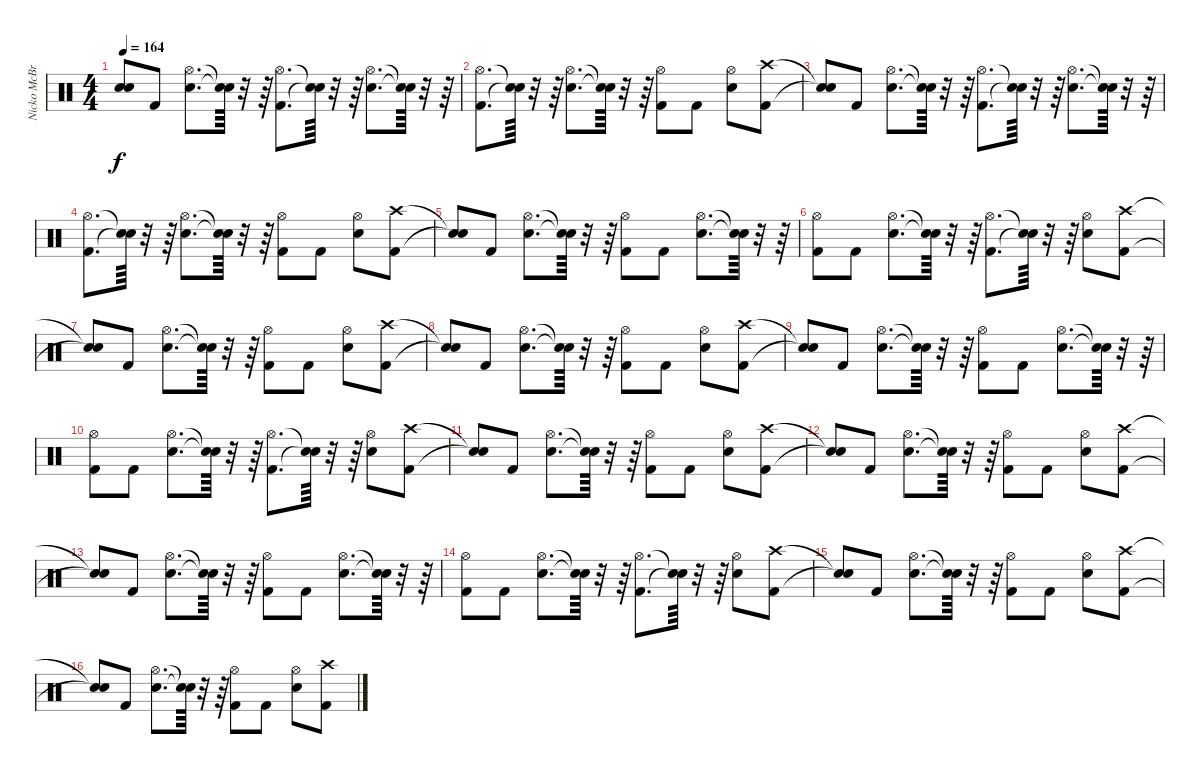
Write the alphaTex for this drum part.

\track ("Nicko McBrian (Drums)" "Nicko McBr") {instrument percussion}
\staff {score}
\articulation defaults
\ts (4 4)
\tempo 164
\clef neutral
\ks c
("Snare (hit)"{t} "Snare (hit)"{t}).8{dy f} "Kick (hit) 2".8 ("Snare (hit) 2" "Hi-Hat (open)").8{d} ("Snare (hit)"{t} "Snare (hit)"{t}).64 r.32 r.64 ("Kick (hit) 2" "Hi-Hat (open)").8{d} ("Snare (hit)"{t} "Snare (hit)"{t}).64 r.32 r.64 ("Snare (hit) 2" "Hi-Hat (open)").8{d} ("Snare (hit)"{t} "Snare (hit)"{t}).64 r.32 r.64 |
("Kick (hit) 2" "Hi-Hat (open)").8{d} ("Snare (hit)"{t} "Snare (hit)"{t}).64 r.32 r.64 ("Snare (hit) 2" "Hi-Hat (open)").8{d} ("Snare (hit)"{t} "Snare (hit)"{t}).64 r.32 r.64 ("Kick (hit) 2" "Hi-Hat (open)").8 "Kick (hit) 2".8 ("Snare (hit) 2" "Hi-Hat (open)").8 ("Kick (hit) 2" "Crash high (hit)").8 |
("Snare (hit)"{t} "Snare (hit)"{t}).8 "Kick (hit) 2".8 ("Snare (hit) 2" "Hi-Hat (open)").8{d} ("Snare (hit)"{t} "Snare (hit)"{t}).64 r.32 r.64 ("Kick (hit) 2" "Hi-Hat (open)").8{d} ("Snare (hit)"{t} "Snare (hit)"{t}).64 r.32 r.64 ("Snare (hit) 2" "Hi-Hat (open)").8{d} ("Snare (hit)"{t} "Snare (hit)"{t}).64 r.32 r.64 |
("Kick (hit) 2" "Hi-Hat (open)").8{d} ("Snare (hit)"{t} "Snare (hit)"{t}).64 r.32 r.64 ("Snare (hit) 2" "Hi-Hat (open)").8{d} ("Snare (hit)"{t} "Snare (hit)"{t}).64 r.32 r.64 ("Kick (hit) 2" "Hi-Hat (open)").8 "Kick (hit) 2".8 ("Snare (hit) 2" "Hi-Hat (open)").8 ("Kick (hit) 2" "Crash high (hit)").8 |
("Snare (hit)"{t} "Snare (hit)"{t}).8 "Kick (hit) 2".8 ("Snare (hit) 2" "Hi-Hat (open)").8{d} ("Snare (hit)"{t} "Snare (hit)"{t}).64 r.32 r.64 ("Kick (hit) 2" "Hi-Hat (open)").8 "Kick (hit) 2".8 ("Snare (hit) 2" "Hi-Hat (open)").8{d} ("Snare (hit)"{t} "Snare (hit)"{t}).64 r.32 r.64 |
("Kick (hit) 2" "Hi-Hat (open)").8 "Kick (hit) 2".8 ("Snare (hit) 2" "Hi-Hat (open)").8{d} ("Snare (hit)"{t} "Snare (hit)"{t}).64 r.32 r.64 ("Kick (hit) 2" "Hi-Hat (open)").8{d} ("Snare (hit)"{t} "Snare (hit)"{t}).64 r.32 r.64 ("Snare (hit) 2" "Hi-Hat (open)").8 ("Kick (hit) 2" "Crash high (hit)").8 |
("Snare (hit)"{t} "Snare (hit)"{t}).8 "Kick (hit) 2".8 ("Snare (hit) 2" "Hi-Hat (open)").8{d} ("Snare (hit)"{t} "Snare (hit)"{t}).64 r.32 r.64 ("Kick (hit) 2" "Hi-Hat (open)").8 "Kick (hit) 2".8 ("Snare (hit) 2" "Hi-Hat (open)").8 ("Kick (hit) 2" "Crash high (hit)").8 |
("Snare (hit)"{t} "Snare (hit)"{t}).8 "Kick (hit) 2".8 ("Snare (hit) 2" "Hi-Hat (open)").8{d} ("Snare (hit)"{t} "Snare (hit)"{t}).64 r.32 r.64 ("Kick (hit) 2" "Hi-Hat (open)").8 "Kick (hit) 2".8 ("Snare (hit) 2" "Hi-Hat (open)").8 ("Kick (hit) 2" "Crash high (hit)").8 |
("Snare (hit)"{t} "Snare (hit)"{t}).8 "Kick (hit) 2".8 ("Snare (hit) 2" "Hi-Hat (open)").8{d} ("Snare (hit)"{t} "Snare (hit)"{t}).64 r.32 r.64 ("Kick (hit) 2" "Hi-Hat (open)").8 "Kick (hit) 2".8 ("Snare (hit) 2" "Hi-Hat (open)").8{d} ("Snare (hit)"{t} "Snare (hit)"{t}).64 r.32 r.64 |
("Kick (hit) 2" "Hi-Hat (open)").8 "Kick (hit) 2".8 ("Snare (hit) 2" "Hi-Hat (open)").8{d} ("Snare (hit)"{t} "Snare (hit)"{t}).64 r.32 r.64 ("Kick (hit) 2" "Hi-Hat (open)").8{d} ("Snare (hit)"{t} "Snare (hit)"{t}).64 r.32 r.64 ("Snare (hit) 2" "Hi-Hat (open)").8 ("Kick (hit) 2" "Crash high (hit)").8 |
("Snare (hit)"{t} "Snare (hit)"{t}).8 "Kick (hit) 2".8 ("Snare (hit) 2" "Hi-Hat (open)").8{d} ("Snare (hit)"{t} "Snare (hit)"{t}).64 r.32 r.64 ("Kick (hit) 2" "Hi-Hat (open)").8 "Kick (hit) 2".8 ("Snare (hit) 2" "Hi-Hat (open)").8 ("Kick (hit) 2" "Crash high (hit)").8 |
("Snare (hit)"{t} "Snare (hit)"{t}).8 "Kick (hit) 2".8 ("Snare (hit) 2" "Hi-Hat (open)").8{d} ("Snare (hit)"{t} "Snare (hit)"{t}).64 r.32 r.64 ("Kick (hit) 2" "Hi-Hat (open)").8 "Kick (hit) 2".8 ("Snare (hit) 2" "Hi-Hat (open)").8 ("Kick (hit) 2" "Crash high (hit)").8 |
("Snare (hit)"{t} "Snare (hit)"{t}).8 "Kick (hit) 2".8 ("Snare (hit) 2" "Hi-Hat (open)").8{d} ("Snare (hit)"{t} "Snare (hit)"{t}).64 r.32 r.64 ("Kick (hit) 2" "Hi-Hat (open)").8 "Kick (hit) 2".8 ("Snare (hit) 2" "Hi-Hat (open)").8{d} ("Snare (hit)"{t} "Snare (hit)"{t}).64 r.32 r.64 |
("Kick (hit) 2" "Hi-Hat (open)").8 "Kick (hit) 2".8 ("Snare (hit) 2" "Hi-Hat (open)").8{d} ("Snare (hit)"{t} "Snare (hit)"{t}).64 r.32 r.64 ("Kick (hit) 2" "Hi-Hat (open)").8{d} ("Snare (hit)"{t} "Snare (hit)"{t}).64 r.32 r.64 ("Snare (hit) 2" "Hi-Hat (open)").8 ("Kick (hit) 2" "Crash high (hit)").8 |
("Snare (hit)"{t} "Snare (hit)"{t}).8 "Kick (hit) 2".8 ("Snare (hit) 2" "Hi-Hat (open)").8{d} ("Snare (hit)"{t} "Snare (hit)"{t}).64 r.32 r.64 ("Kick (hit) 2" "Hi-Hat (open)").8 "Kick (hit) 2".8 ("Snare (hit) 2" "Hi-Hat (open)").8 ("Kick (hit) 2" "Crash high (hit)").8 |
("Snare (hit)"{t} "Snare (hit)"{t}).8 "Kick (hit) 2".8 ("Snare (hit) 2" "Hi-Hat (open)").8{d} ("Snare (hit)"{t} "Snare (hit)"{t}).64 r.32 r.64 ("Kick (hit) 2" "Hi-Hat (open)").8 "Kick (hit) 2".8 ("Snare (hit) 2" "Hi-Hat (open)").8 ("Kick (hit) 2" "Crash high (hit)").8
